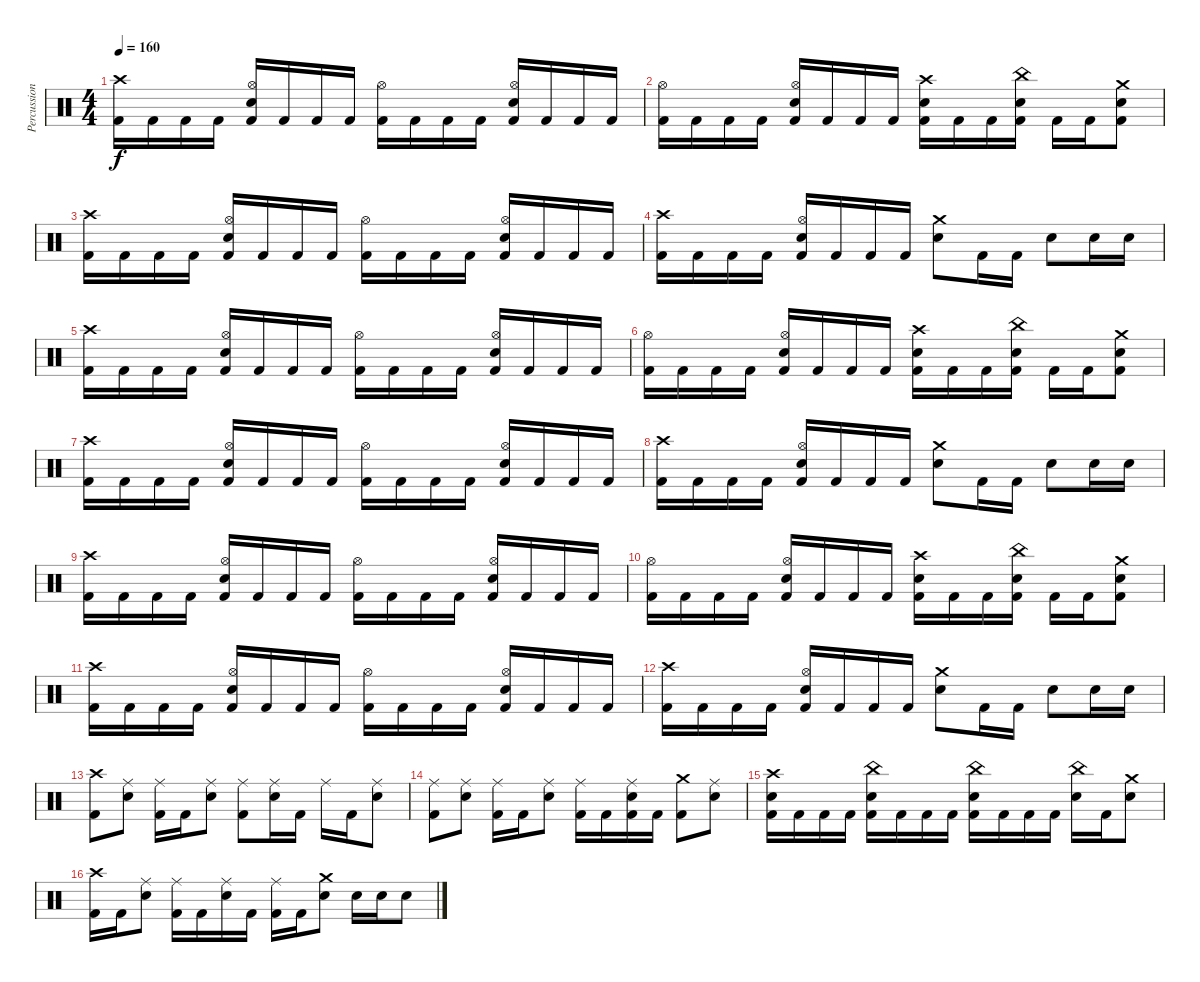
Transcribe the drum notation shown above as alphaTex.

\track ("Percussion" "Percussion") {instrument percussion}
\staff {score}
\articulation defaults
\ts (4 4)
\tempo 160
\clef neutral
\ks c
("Crash high (hit)" "Kick (hit) 2").16{dy f} "Kick (hit) 2".16 "Kick (hit) 2".16 "Kick (hit) 2".16 ("Hi-Hat (open)" "Electric Snare (hit)" "Kick (hit) 2").16 "Kick (hit) 2".16 "Kick (hit) 2".16 "Kick (hit) 2".16 ("Hi-Hat (open)" "Kick (hit) 2").16 "Kick (hit) 2".16 "Kick (hit) 2".16 "Kick (hit) 2".16 ("Hi-Hat (open)" "Electric Snare (hit)" "Kick (hit) 2").16 "Kick (hit) 2".16 "Kick (hit) 2".16 "Kick (hit) 2".16 |
("Hi-Hat (open)" "Kick (hit) 2").16 "Kick (hit) 2".16 "Kick (hit) 2".16 "Kick (hit) 2".16 ("Hi-Hat (open)" "Electric Snare (hit)" "Kick (hit) 2").16 "Kick (hit) 2".16 "Kick (hit) 2".16 "Kick (hit) 2".16 ("Crash high (hit)" "Electric Snare (hit)" "Kick (hit) 2").16 "Kick (hit) 2".16 "Kick (hit) 2".16 ("China (hit)" "Electric Snare (hit)" "Kick (hit) 2").16 "Kick (hit) 2".16 "Kick (hit) 2".16 ("Crash medium (hit)" "Electric Snare (hit)" "Kick (hit) 2").8 |
("Crash high (hit)" "Kick (hit) 2").16 "Kick (hit) 2".16 "Kick (hit) 2".16 "Kick (hit) 2".16 ("Hi-Hat (open)" "Electric Snare (hit)" "Kick (hit) 2").16 "Kick (hit) 2".16 "Kick (hit) 2".16 "Kick (hit) 2".16 ("Hi-Hat (open)" "Kick (hit) 2").16 "Kick (hit) 2".16 "Kick (hit) 2".16 "Kick (hit) 2".16 ("Hi-Hat (open)" "Electric Snare (hit)" "Kick (hit) 2").16 "Kick (hit) 2".16 "Kick (hit) 2".16 "Kick (hit) 2".16 |
("Crash high (hit)" "Kick (hit) 2").16 "Kick (hit) 2".16 "Kick (hit) 2".16 "Kick (hit) 2".16 ("Hi-Hat (open)" "Electric Snare (hit)" "Kick (hit) 2").16 "Kick (hit) 2".16 "Kick (hit) 2".16 "Kick (hit) 2".16 ("Crash medium (hit)" "Electric Snare (hit)").8 "Kick (hit) 2".16 "Kick (hit) 2".16 "Electric Snare (hit)".8 "Electric Snare (hit)".16 "Electric Snare (hit)".16 |
("Crash high (hit)" "Kick (hit) 2").16 "Kick (hit) 2".16 "Kick (hit) 2".16 "Kick (hit) 2".16 ("Hi-Hat (open)" "Electric Snare (hit)" "Kick (hit) 2").16 "Kick (hit) 2".16 "Kick (hit) 2".16 "Kick (hit) 2".16 ("Hi-Hat (open)" "Kick (hit) 2").16 "Kick (hit) 2".16 "Kick (hit) 2".16 "Kick (hit) 2".16 ("Hi-Hat (open)" "Electric Snare (hit)" "Kick (hit) 2").16 "Kick (hit) 2".16 "Kick (hit) 2".16 "Kick (hit) 2".16 |
("Hi-Hat (open)" "Kick (hit) 2").16 "Kick (hit) 2".16 "Kick (hit) 2".16 "Kick (hit) 2".16 ("Hi-Hat (open)" "Electric Snare (hit)" "Kick (hit) 2").16 "Kick (hit) 2".16 "Kick (hit) 2".16 "Kick (hit) 2".16 ("Crash high (hit)" "Electric Snare (hit)" "Kick (hit) 2").16 "Kick (hit) 2".16 "Kick (hit) 2".16 ("China (hit)" "Electric Snare (hit)" "Kick (hit) 2").16 "Kick (hit) 2".16 "Kick (hit) 2".16 ("Crash medium (hit)" "Electric Snare (hit)" "Kick (hit) 2").8 |
("Crash high (hit)" "Kick (hit) 2").16 "Kick (hit) 2".16 "Kick (hit) 2".16 "Kick (hit) 2".16 ("Hi-Hat (open)" "Electric Snare (hit)" "Kick (hit) 2").16 "Kick (hit) 2".16 "Kick (hit) 2".16 "Kick (hit) 2".16 ("Hi-Hat (open)" "Kick (hit) 2").16 "Kick (hit) 2".16 "Kick (hit) 2".16 "Kick (hit) 2".16 ("Hi-Hat (open)" "Electric Snare (hit)" "Kick (hit) 2").16 "Kick (hit) 2".16 "Kick (hit) 2".16 "Kick (hit) 2".16 |
("Crash high (hit)" "Kick (hit) 2").16 "Kick (hit) 2".16 "Kick (hit) 2".16 "Kick (hit) 2".16 ("Hi-Hat (open)" "Electric Snare (hit)" "Kick (hit) 2").16 "Kick (hit) 2".16 "Kick (hit) 2".16 "Kick (hit) 2".16 ("Crash medium (hit)" "Electric Snare (hit)").8 "Kick (hit) 2".16 "Kick (hit) 2".16 "Electric Snare (hit)".8 "Electric Snare (hit)".16 "Electric Snare (hit)".16 |
("Crash high (hit)" "Kick (hit) 2").16 "Kick (hit) 2".16 "Kick (hit) 2".16 "Kick (hit) 2".16 ("Hi-Hat (open)" "Electric Snare (hit)" "Kick (hit) 2").16 "Kick (hit) 2".16 "Kick (hit) 2".16 "Kick (hit) 2".16 ("Hi-Hat (open)" "Kick (hit) 2").16 "Kick (hit) 2".16 "Kick (hit) 2".16 "Kick (hit) 2".16 ("Hi-Hat (open)" "Electric Snare (hit)" "Kick (hit) 2").16 "Kick (hit) 2".16 "Kick (hit) 2".16 "Kick (hit) 2".16 |
("Hi-Hat (open)" "Kick (hit) 2").16 "Kick (hit) 2".16 "Kick (hit) 2".16 "Kick (hit) 2".16 ("Hi-Hat (open)" "Electric Snare (hit)" "Kick (hit) 2").16 "Kick (hit) 2".16 "Kick (hit) 2".16 "Kick (hit) 2".16 ("Crash high (hit)" "Electric Snare (hit)" "Kick (hit) 2").16 "Kick (hit) 2".16 "Kick (hit) 2".16 ("China (hit)" "Electric Snare (hit)" "Kick (hit) 2").16 "Kick (hit) 2".16 "Kick (hit) 2".16 ("Crash medium (hit)" "Electric Snare (hit)" "Kick (hit) 2").8 |
("Crash high (hit)" "Kick (hit) 2").16 "Kick (hit) 2".16 "Kick (hit) 2".16 "Kick (hit) 2".16 ("Hi-Hat (open)" "Electric Snare (hit)" "Kick (hit) 2").16 "Kick (hit) 2".16 "Kick (hit) 2".16 "Kick (hit) 2".16 ("Hi-Hat (open)" "Kick (hit) 2").16 "Kick (hit) 2".16 "Kick (hit) 2".16 "Kick (hit) 2".16 ("Hi-Hat (open)" "Electric Snare (hit)" "Kick (hit) 2").16 "Kick (hit) 2".16 "Kick (hit) 2".16 "Kick (hit) 2".16 |
("Crash high (hit)" "Kick (hit) 2").16 "Kick (hit) 2".16 "Kick (hit) 2".16 "Kick (hit) 2".16 ("Hi-Hat (open)" "Electric Snare (hit)" "Kick (hit) 2").16 "Kick (hit) 2".16 "Kick (hit) 2".16 "Kick (hit) 2".16 ("Crash medium (hit)" "Electric Snare (hit)").8 "Kick (hit) 2".16 "Kick (hit) 2".16 "Electric Snare (hit)".8 "Electric Snare (hit)".16 "Electric Snare (hit)".16 |
("Crash high (hit)" "Kick (hit) 2").8 ("Ride (middle)" "Electric Snare (hit)").8 ("Ride (middle)" "Kick (hit) 2").16 "Kick (hit) 2".16 ("Ride (middle)" "Electric Snare (hit)").8 ("Ride (middle)" "Kick (hit) 2").8 ("Ride (middle)" "Electric Snare (hit)").16 "Kick (hit) 2".16 "Ride (middle)".16 "Kick (hit) 2".16 ("Ride (middle)" "Electric Snare (hit)").8 |
("Ride (middle)" "Kick (hit) 2").8 ("Ride (middle)" "Electric Snare (hit)").8 ("Ride (middle)" "Kick (hit) 2").16 "Kick (hit) 2".16 ("Ride (middle)" "Electric Snare (hit)").8 ("Ride (middle)" "Kick (hit) 2").16 "Kick (hit) 2".16 ("Ride (middle)" "Electric Snare (hit)" "Kick (hit) 2").16 "Kick (hit) 2".16 ("Crash medium (hit)" "Kick (hit) 2").8 ("Ride (middle)" "Electric Snare (hit)").8 |
("Crash high (hit)" "Electric Snare (hit)" "Kick (hit) 2").16 "Kick (hit) 2".16 "Kick (hit) 2".16 "Kick (hit) 2".16 ("China (hit)" "Electric Snare (hit)" "Kick (hit) 2").16 "Kick (hit) 2".16 "Kick (hit) 2".16 "Kick (hit) 2".16 ("China (hit)" "Electric Snare (hit)" "Kick (hit) 2").16 "Kick (hit) 2".16 "Kick (hit) 2".16 "Kick (hit) 2".16 ("China (hit)" "Electric Snare (hit)").16 "Kick (hit) 2".16 ("Crash medium (hit)" "Electric Snare (hit)").8 |
("Crash high (hit)" "Kick (hit) 2").16 "Kick (hit) 2".16 ("Ride (middle)" "Electric Snare (hit)").8 ("Ride (middle)" "Kick (hit) 2").16 "Kick (hit) 2".16 ("Ride (middle)" "Electric Snare (hit)").16 "Kick (hit) 2".16 ("Ride (middle)" "Kick (hit) 2").16 "Kick (hit) 2".16 ("Crash medium (hit)" "Electric Snare (hit)").8 "Electric Snare (hit)".16 "Electric Snare (hit)".16 "Electric Snare (hit)".8
